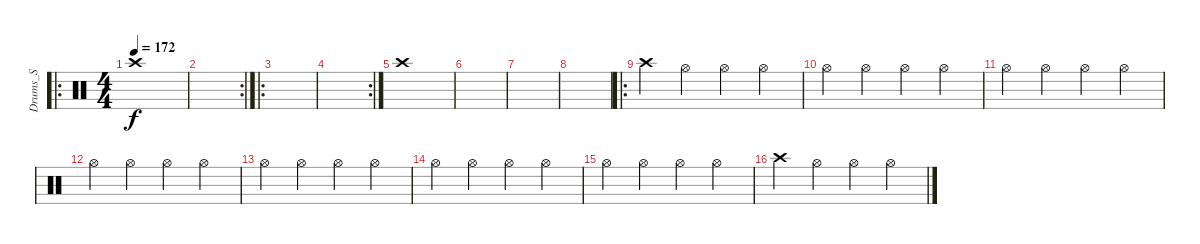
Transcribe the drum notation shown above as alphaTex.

\track ("Drums_S" "Drums_S") {instrument percussion}
\staff {score}
\articulation defaults
\ro
\ts (4 4)
\tempo 172
\clef neutral
\ks c "Crash high (hit)".1{dy f}
|
\rc 2
|
\ro
|
\rc 2
|
"Crash high (hit)".1 |
|
|
|
\ro "Crash high (hit)".4 "Hi-Hat (open)".4 "Hi-Hat (open)".4 "Hi-Hat (open)".4
|
"Hi-Hat (open)".4 "Hi-Hat (open)".4 "Hi-Hat (open)".4 "Hi-Hat (open)".4 |
"Hi-Hat (open)".4 "Hi-Hat (open)".4 "Hi-Hat (open)".4 "Hi-Hat (open)".4 |
"Hi-Hat (open)".4 "Hi-Hat (open)".4 "Hi-Hat (open)".4 "Hi-Hat (open)".4 |
"Hi-Hat (open)".4 "Hi-Hat (open)".4 "Hi-Hat (open)".4 "Hi-Hat (open)".4 |
"Hi-Hat (open)".4 "Hi-Hat (open)".4 "Hi-Hat (open)".4 "Hi-Hat (open)".4 |
"Hi-Hat (open)".4 "Hi-Hat (open)".4 "Hi-Hat (open)".4 "Hi-Hat (open)".4 |
"Crash high (hit)".4 "Hi-Hat (open)".4 "Hi-Hat (open)".4 "Hi-Hat (open)".4
